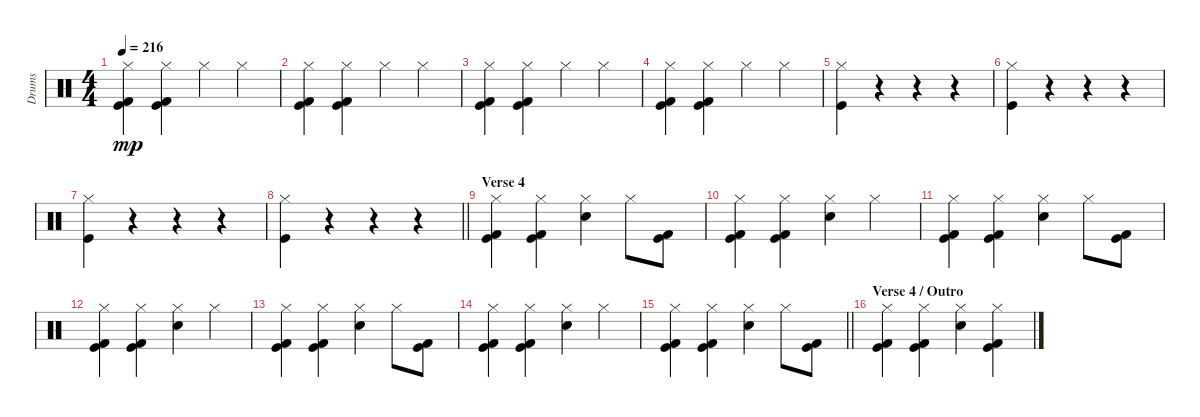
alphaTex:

\track ("Drums" "Drums") {instrument percussion}
\staff {score}
\articulation defaults
\ts (4 4)
\tempo 216
\clef neutral
\ks c
("Hi-Hat (closed)" "Kick (hit) 2" "Kick (hit)").4{dy mp} ("Hi-Hat (closed)" "Kick (hit) 2" "Kick (hit)").4 "Hi-Hat (closed)".4 "Hi-Hat (closed)".4 |
("Hi-Hat (closed)" "Kick (hit) 2" "Kick (hit)").4 ("Hi-Hat (closed)" "Kick (hit) 2" "Kick (hit)").4 "Hi-Hat (closed)".4 "Hi-Hat (closed)".4 |
("Hi-Hat (closed)" "Kick (hit) 2" "Kick (hit)").4 ("Hi-Hat (closed)" "Kick (hit) 2" "Kick (hit)").4 "Hi-Hat (closed)".4 "Hi-Hat (closed)".4 |
("Hi-Hat (closed)" "Kick (hit) 2" "Kick (hit)").4 ("Hi-Hat (closed)" "Kick (hit) 2" "Kick (hit)").4 "Hi-Hat (closed)".4 "Hi-Hat (closed)".4 |
("Hi-Hat (closed)" "Kick (hit)").4 r.4 r.4 r.4 |
("Hi-Hat (closed)" "Kick (hit)").4 r.4 r.4 r.4 |
("Hi-Hat (closed)" "Kick (hit)").4 r.4 r.4 r.4 |
\barLineRight lightlight
("Hi-Hat (closed)" "Kick (hit)").4 r.4 r.4 r.4 |
\section ("" "Verse 4")
("Hi-Hat (closed)" "Kick (hit)" "Kick (hit) 2").4 ("Hi-Hat (closed)" "Kick (hit)" "Kick (hit) 2").4 ("Hi-Hat (closed)" "Snare (hit) 2").4 "Hi-Hat (closed)".8 ("Kick (hit)" "Kick (hit) 2").8 |
("Hi-Hat (closed)" "Kick (hit)" "Kick (hit) 2").4 ("Hi-Hat (closed)" "Kick (hit)" "Kick (hit) 2").4 ("Hi-Hat (closed)" "Snare (hit) 2").4 "Hi-Hat (closed)".4 |
("Hi-Hat (closed)" "Kick (hit)" "Kick (hit) 2").4 ("Hi-Hat (closed)" "Kick (hit)" "Kick (hit) 2").4 ("Hi-Hat (closed)" "Snare (hit) 2").4 "Hi-Hat (closed)".8 ("Kick (hit)" "Kick (hit) 2").8 |
("Hi-Hat (closed)" "Kick (hit)" "Kick (hit) 2").4 ("Hi-Hat (closed)" "Kick (hit)" "Kick (hit) 2").4 ("Hi-Hat (closed)" "Snare (hit) 2").4 "Hi-Hat (closed)".4 |
("Hi-Hat (closed)" "Kick (hit)" "Kick (hit) 2").4 ("Hi-Hat (closed)" "Kick (hit)" "Kick (hit) 2").4 ("Hi-Hat (closed)" "Snare (hit) 2").4 "Hi-Hat (closed)".8 ("Kick (hit)" "Kick (hit) 2").8 |
("Hi-Hat (closed)" "Kick (hit)" "Kick (hit) 2").4 ("Hi-Hat (closed)" "Kick (hit)" "Kick (hit) 2").4 ("Hi-Hat (closed)" "Snare (hit) 2").4 "Hi-Hat (closed)".4 |
\barLineRight lightlight
("Hi-Hat (closed)" "Kick (hit)" "Kick (hit) 2").4 ("Hi-Hat (closed)" "Kick (hit)" "Kick (hit) 2").4 ("Hi-Hat (closed)" "Snare (hit) 2").4 "Hi-Hat (closed)".8 ("Kick (hit)" "Kick (hit) 2").8 |
\section ("" "Verse 4 / Outro")
("Hi-Hat (closed)" "Kick (hit)" "Kick (hit) 2").4 ("Hi-Hat (closed)" "Kick (hit)" "Kick (hit) 2").4 ("Hi-Hat (closed)" "Snare (hit) 2").4 ("Hi-Hat (closed)" "Kick (hit)" "Kick (hit) 2").4
